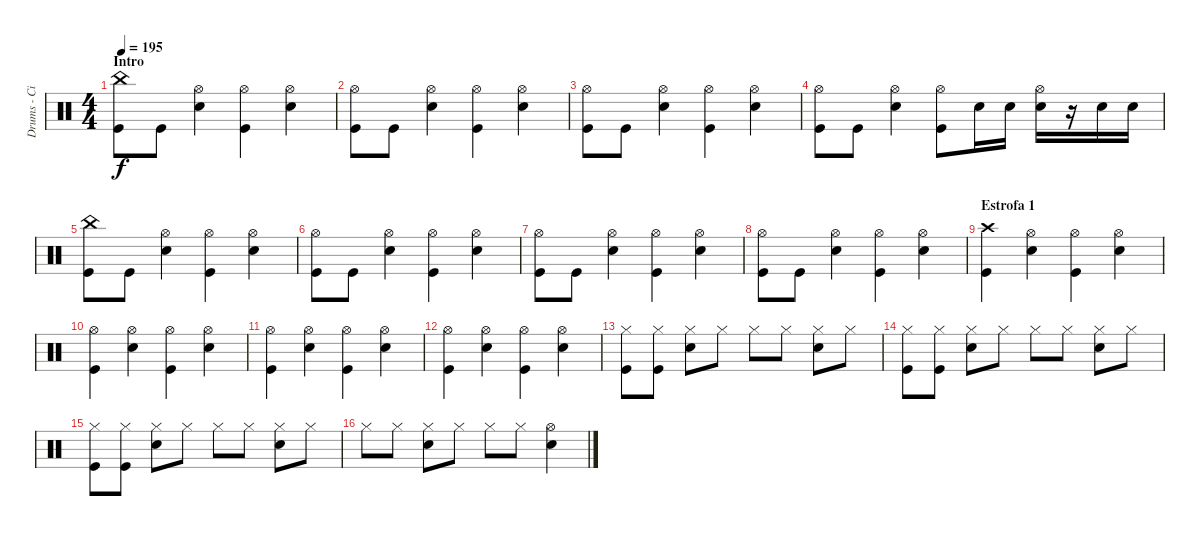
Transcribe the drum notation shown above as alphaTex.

\track ("Drums - Ciro" "Drums - Ci") {instrument percussion}
\staff {score}
\articulation defaults
\ts (4 4)
\section ("" "Intro")
\tempo 195
\clef neutral
\ks c
("China (hit)" "Kick (hit)").8{dy f} "Kick (hit)".8 ("Hi-Hat (open)" "Electric Snare (hit)").4 ("Hi-Hat (open)" "Kick (hit)").4 ("Hi-Hat (open)" "Electric Snare (hit)").4 |
("Hi-Hat (open)" "Kick (hit)").8 "Kick (hit)".8 ("Hi-Hat (open)" "Electric Snare (hit)").4 ("Hi-Hat (open)" "Kick (hit)").4 ("Hi-Hat (open)" "Electric Snare (hit)").4 |
("Hi-Hat (open)" "Kick (hit)").8 "Kick (hit)".8 ("Hi-Hat (open)" "Electric Snare (hit)").4 ("Hi-Hat (open)" "Kick (hit)").4 ("Hi-Hat (open)" "Electric Snare (hit)").4 |
("Hi-Hat (open)" "Kick (hit)").8 "Kick (hit)".8 ("Hi-Hat (open)" "Electric Snare (hit)").4 ("Hi-Hat (open)" "Kick (hit)").8 "Electric Snare (hit)".16 "Electric Snare (hit)".16 ("Hi-Hat (open)" "Electric Snare (hit)").16 r.16 "Electric Snare (hit)".16 "Electric Snare (hit)".16 |
("China (hit)" "Kick (hit)").8 "Kick (hit)".8 ("Hi-Hat (open)" "Electric Snare (hit)").4 ("Hi-Hat (open)" "Kick (hit)").4 ("Hi-Hat (open)" "Electric Snare (hit)").4 |
("Hi-Hat (open)" "Kick (hit)").8 "Kick (hit)".8 ("Hi-Hat (open)" "Electric Snare (hit)").4 ("Hi-Hat (open)" "Kick (hit)").4 ("Hi-Hat (open)" "Electric Snare (hit)").4 |
("Hi-Hat (open)" "Kick (hit)").8 "Kick (hit)".8 ("Hi-Hat (open)" "Electric Snare (hit)").4 ("Hi-Hat (open)" "Kick (hit)").4 ("Hi-Hat (open)" "Electric Snare (hit)").4 |
("Hi-Hat (open)" "Kick (hit)").8 "Kick (hit)".8 ("Hi-Hat (open)" "Electric Snare (hit)").4 ("Hi-Hat (open)" "Kick (hit)").4 ("Hi-Hat (open)" "Electric Snare (hit)").4 |
\section ("" "Estrofa 1")
("Crash high (hit)" "Kick (hit)").4 ("Hi-Hat (open)" "Electric Snare (hit)").4 ("Hi-Hat (open)" "Kick (hit)").4 ("Hi-Hat (open)" "Electric Snare (hit)").4 |
("Hi-Hat (open)" "Kick (hit)").4 ("Hi-Hat (open)" "Electric Snare (hit)").4 ("Hi-Hat (open)" "Kick (hit)").4 ("Hi-Hat (open)" "Electric Snare (hit)").4 |
("Hi-Hat (open)" "Kick (hit)").4 ("Hi-Hat (open)" "Electric Snare (hit)").4 ("Hi-Hat (open)" "Kick (hit)").4 ("Hi-Hat (open)" "Electric Snare (hit)").4 |
("Hi-Hat (open)" "Kick (hit)").4 ("Hi-Hat (open)" "Electric Snare (hit)").4 ("Hi-Hat (open)" "Kick (hit)").4 ("Hi-Hat (open)" "Electric Snare (hit)").4 |
("Hi-Hat (closed)" "Kick (hit)").8 ("Hi-Hat (closed)" "Kick (hit)").8 ("Hi-Hat (closed)" "Electric Snare (hit)").8 "Hi-Hat (closed)".8 "Hi-Hat (closed)".8 "Hi-Hat (closed)".8 ("Hi-Hat (closed)" "Electric Snare (hit)").8 "Hi-Hat (closed)".8 |
("Hi-Hat (closed)" "Kick (hit)").8 ("Hi-Hat (closed)" "Kick (hit)").8 ("Hi-Hat (closed)" "Electric Snare (hit)").8 "Hi-Hat (closed)".8 "Hi-Hat (closed)".8 "Hi-Hat (closed)".8 ("Hi-Hat (closed)" "Electric Snare (hit)").8 "Hi-Hat (closed)".8 |
("Hi-Hat (closed)" "Kick (hit)").8 ("Hi-Hat (closed)" "Kick (hit)").8 ("Hi-Hat (closed)" "Electric Snare (hit)").8 "Hi-Hat (closed)".8 "Hi-Hat (closed)".8 "Hi-Hat (closed)".8 ("Hi-Hat (closed)" "Electric Snare (hit)").8 "Hi-Hat (closed)".8 |
"Hi-Hat (closed)".8 "Hi-Hat (closed)".8 ("Hi-Hat (closed)" "Electric Snare (hit)").8 "Hi-Hat (closed)".8 "Hi-Hat (closed)".8 "Hi-Hat (closed)".8 ("Hi-Hat (open)" "Electric Snare (hit)").4
